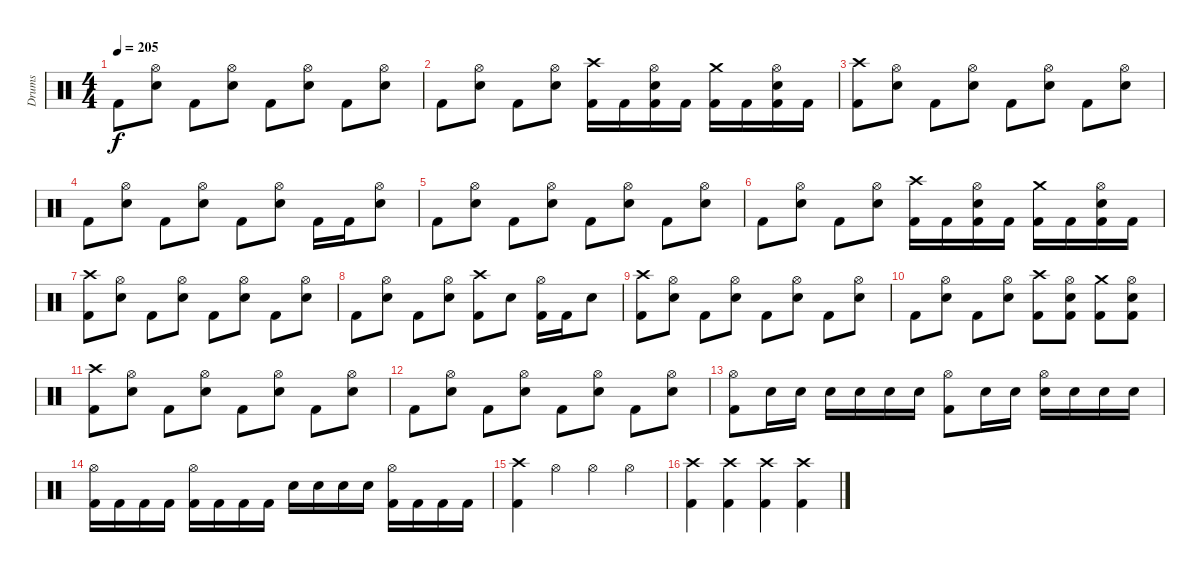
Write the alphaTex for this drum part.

\track ("Drums" "Drums") {instrument percussion}
\staff {score}
\articulation defaults
\ts (4 4)
\tempo 205
\clef neutral
\ks c "Kick (hit) 2".8{dy f}
("Hi-Hat (open)" "Snare (hit) 2").8 "Kick (hit) 2".8 ("Hi-Hat (open)" "Snare (hit) 2").8 "Kick (hit) 2".8 ("Hi-Hat (open)" "Snare (hit) 2").8 "Kick (hit) 2".8 ("Hi-Hat (open)" "Snare (hit) 2").8 |
"Kick (hit) 2".8 ("Hi-Hat (open)" "Snare (hit) 2").8 "Kick (hit) 2".8 ("Hi-Hat (open)" "Snare (hit) 2").8 ("Crash high (hit)" "Kick (hit) 2").16 "Kick (hit) 2".16 ("Hi-Hat (open)" "Snare (hit) 2" "Kick (hit) 2").16 "Kick (hit) 2".16 ("Crash medium (hit)" "Kick (hit) 2").16 "Kick (hit) 2".16 ("Hi-Hat (open)" "Snare (hit) 2" "Kick (hit) 2").16 "Kick (hit) 2".16 |
("Crash high (hit)" "Kick (hit) 2").8 ("Hi-Hat (open)" "Snare (hit) 2").8 "Kick (hit) 2".8 ("Hi-Hat (open)" "Snare (hit) 2").8 "Kick (hit) 2".8 ("Hi-Hat (open)" "Snare (hit) 2").8 "Kick (hit) 2".8 ("Hi-Hat (open)" "Snare (hit) 2").8 |
"Kick (hit) 2".8 ("Hi-Hat (open)" "Snare (hit) 2").8 "Kick (hit) 2".8 ("Hi-Hat (open)" "Snare (hit) 2").8 "Kick (hit) 2".8 ("Hi-Hat (open)" "Snare (hit) 2").8 "Kick (hit) 2".16 "Kick (hit) 2".16 ("Hi-Hat (open)" "Snare (hit) 2").8 |
"Kick (hit) 2".8 ("Hi-Hat (open)" "Snare (hit) 2").8 "Kick (hit) 2".8 ("Hi-Hat (open)" "Snare (hit) 2").8 "Kick (hit) 2".8 ("Hi-Hat (open)" "Snare (hit) 2").8 "Kick (hit) 2".8 ("Hi-Hat (open)" "Snare (hit) 2").8 |
"Kick (hit) 2".8 ("Hi-Hat (open)" "Snare (hit) 2").8 "Kick (hit) 2".8 ("Hi-Hat (open)" "Snare (hit) 2").8 ("Crash high (hit)" "Kick (hit) 2").16 "Kick (hit) 2".16 ("Hi-Hat (open)" "Snare (hit) 2" "Kick (hit) 2").16 "Kick (hit) 2".16 ("Crash medium (hit)" "Kick (hit) 2").16 "Kick (hit) 2".16 ("Hi-Hat (open)" "Snare (hit) 2" "Kick (hit) 2").16 "Kick (hit) 2".16 |
("Crash high (hit)" "Kick (hit) 2").8 ("Hi-Hat (open)" "Snare (hit) 2").8 "Kick (hit) 2".8 ("Hi-Hat (open)" "Snare (hit) 2").8 "Kick (hit) 2".8 ("Hi-Hat (open)" "Snare (hit) 2").8 "Kick (hit) 2".8 ("Hi-Hat (open)" "Snare (hit) 2").8 |
"Kick (hit) 2".8 ("Hi-Hat (open)" "Snare (hit) 2").8 "Kick (hit) 2".8 ("Hi-Hat (open)" "Snare (hit) 2").8 ("Crash high (hit)" "Kick (hit) 2").8 "Snare (hit) 2".8 ("Hi-Hat (open)" "Kick (hit) 2").16 "Kick (hit) 2".16 "Snare (hit) 2".8 |
("Crash high (hit)" "Kick (hit) 2").8 ("Hi-Hat (open)" "Snare (hit) 2").8 "Kick (hit) 2".8 ("Hi-Hat (open)" "Snare (hit) 2").8 "Kick (hit) 2".8 ("Hi-Hat (open)" "Snare (hit) 2").8 "Kick (hit) 2".8 ("Hi-Hat (open)" "Snare (hit) 2").8 |
"Kick (hit) 2".8 ("Hi-Hat (open)" "Snare (hit) 2").8 "Kick (hit) 2".8 ("Hi-Hat (open)" "Snare (hit) 2").8 ("Crash high (hit)" "Kick (hit) 2").8 ("Hi-Hat (open)" "Snare (hit) 2" "Kick (hit) 2").8 ("Crash medium (hit)" "Kick (hit) 2").8 ("Hi-Hat (open)" "Snare (hit) 2" "Kick (hit) 2").8 |
("Crash high (hit)" "Kick (hit) 2").8 ("Hi-Hat (open)" "Snare (hit) 2").8 "Kick (hit) 2".8 ("Hi-Hat (open)" "Snare (hit) 2").8 "Kick (hit) 2".8 ("Hi-Hat (open)" "Snare (hit) 2").8 "Kick (hit) 2".8 ("Hi-Hat (open)" "Snare (hit) 2").8 |
"Kick (hit) 2".8 ("Hi-Hat (open)" "Snare (hit) 2").8 "Kick (hit) 2".8 ("Hi-Hat (open)" "Snare (hit) 2").8 "Kick (hit) 2".8 ("Hi-Hat (open)" "Snare (hit) 2").8 "Kick (hit) 2".8 ("Hi-Hat (open)" "Snare (hit) 2").8 |
("Hi-Hat (open)" "Kick (hit) 2").8 "Snare (hit) 2".16 "Snare (hit) 2".16 "Snare (hit) 2".16 "Snare (hit) 2".16 "Snare (hit) 2".16 "Snare (hit) 2".16 ("Hi-Hat (open)" "Kick (hit) 2").8 "Snare (hit) 2".16 "Snare (hit) 2".16 ("Hi-Hat (open)" "Snare (hit) 2").16 "Snare (hit) 2".16 "Snare (hit) 2".16 "Snare (hit) 2".16 |
("Hi-Hat (open)" "Kick (hit) 2").16 "Kick (hit) 2".16 "Kick (hit) 2".16 "Kick (hit) 2".16 ("Hi-Hat (open)" "Kick (hit) 2").16 "Kick (hit) 2".16 "Kick (hit) 2".16 "Kick (hit) 2".16 "Snare (hit) 2".16 "Snare (hit) 2".16 "Snare (hit) 2".16 "Snare (hit) 2".16 ("Hi-Hat (open)" "Kick (hit) 2").16 "Kick (hit) 2".16 "Kick (hit) 2".16 "Kick (hit) 2".16 |
("Crash high (hit)" "Kick (hit) 2").4 "Hi-Hat (open)".4 "Hi-Hat (open)".4 "Hi-Hat (open)".4 |
("Crash high (hit)" "Kick (hit) 2").4 ("Crash high (hit)" "Kick (hit) 2").4 ("Crash high (hit)" "Kick (hit) 2").4 ("Crash high (hit)" "Kick (hit) 2").4
